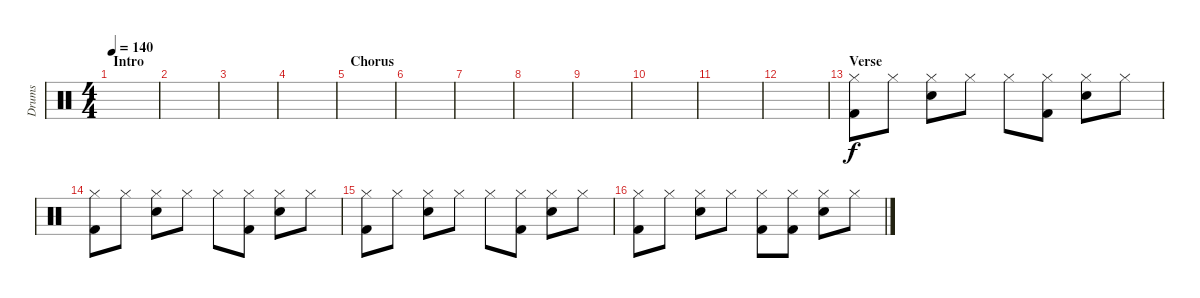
\track ("Drums" "Drums") {instrument percussion}
\staff {score}
\articulation defaults
\ts (4 4)
\section ("" "Intro")
\tempo 140
\clef neutral
\ks c
|
|
|
|
\section ("" "Chorus")
|
|
|
|
|
|
|
|
\section ("" "Verse")
("Hi-Hat (closed)" "Kick (hit) 2").8 "Hi-Hat (closed)".8 ("Hi-Hat (closed)" "Snare (hit) 2").8 "Hi-Hat (closed)".8 "Hi-Hat (closed)".8 ("Hi-Hat (closed)" "Kick (hit) 2").8 ("Hi-Hat (closed)" "Snare (hit) 2").8 "Hi-Hat (closed)".8 |
("Hi-Hat (closed)" "Kick (hit) 2").8 "Hi-Hat (closed)".8 ("Hi-Hat (closed)" "Snare (hit) 2").8 "Hi-Hat (closed)".8 "Hi-Hat (closed)".8 ("Hi-Hat (closed)" "Kick (hit) 2").8 ("Hi-Hat (closed)" "Snare (hit) 2").8 "Hi-Hat (closed)".8 |
("Hi-Hat (closed)" "Kick (hit) 2").8 "Hi-Hat (closed)".8 ("Hi-Hat (closed)" "Snare (hit) 2").8 "Hi-Hat (closed)".8 "Hi-Hat (closed)".8 ("Hi-Hat (closed)" "Kick (hit) 2").8 ("Hi-Hat (closed)" "Snare (hit) 2").8 "Hi-Hat (closed)".8 |
("Hi-Hat (closed)" "Kick (hit) 2").8 "Hi-Hat (closed)".8 ("Hi-Hat (closed)" "Snare (hit) 2").8 "Hi-Hat (closed)".8 ("Hi-Hat (closed)" "Kick (hit) 2").8 ("Hi-Hat (closed)" "Kick (hit) 2").8 ("Hi-Hat (closed)" "Snare (hit) 2").8 "Hi-Hat (closed)".8
